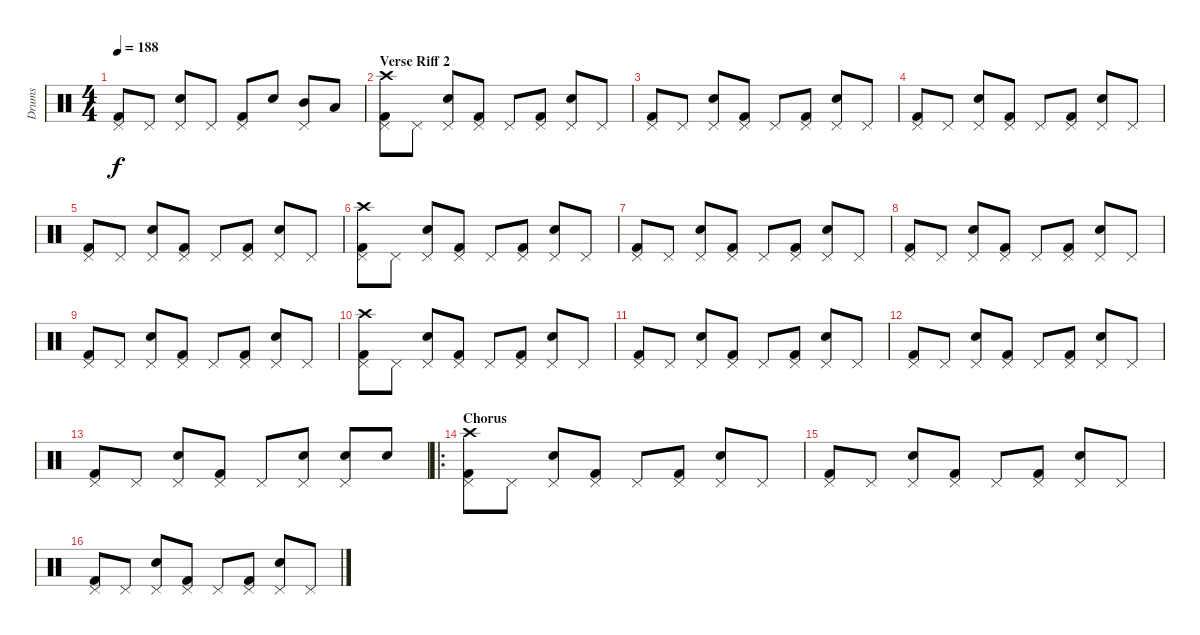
\track ("Drums" "Drums") {instrument percussion}
\staff {score}
\articulation defaults
\ts (4 4)
\tempo 188
\clef neutral
\ks c
("Kick (hit) 2" "Pedal Hi-Hat (hit)").8{dy f} "Pedal Hi-Hat (hit)".8 ("Snare (hit) 2" "Pedal Hi-Hat (hit)").8 "Pedal Hi-Hat (hit)".8 ("Kick (hit) 2" "Pedal Hi-Hat (hit)").8 "Snare (hit) 2".8 ("Mid Tom (hit)" "Pedal Hi-Hat (hit)").8 "Low Tom (hit)".8 |
\section ("" "Verse Riff 2")
("Kick (hit) 2" "Pedal Hi-Hat (hit)" "Crash high (hit)").8 "Pedal Hi-Hat (hit)".8 ("Snare (hit) 2" "Pedal Hi-Hat (hit)").8 ("Kick (hit) 2" "Pedal Hi-Hat (hit)").8 "Pedal Hi-Hat (hit)".8 ("Kick (hit) 2" "Pedal Hi-Hat (hit)").8 ("Snare (hit) 2" "Pedal Hi-Hat (hit)").8 "Pedal Hi-Hat (hit)".8 |
("Kick (hit) 2" "Pedal Hi-Hat (hit)").8 "Pedal Hi-Hat (hit)".8 ("Snare (hit) 2" "Pedal Hi-Hat (hit)").8 ("Kick (hit) 2" "Pedal Hi-Hat (hit)").8 "Pedal Hi-Hat (hit)".8 ("Kick (hit) 2" "Pedal Hi-Hat (hit)").8 ("Snare (hit) 2" "Pedal Hi-Hat (hit)").8 "Pedal Hi-Hat (hit)".8 |
("Kick (hit) 2" "Pedal Hi-Hat (hit)").8 "Pedal Hi-Hat (hit)".8 ("Snare (hit) 2" "Pedal Hi-Hat (hit)").8 ("Kick (hit) 2" "Pedal Hi-Hat (hit)").8 "Pedal Hi-Hat (hit)".8 ("Kick (hit) 2" "Pedal Hi-Hat (hit)").8 ("Snare (hit) 2" "Pedal Hi-Hat (hit)").8 "Pedal Hi-Hat (hit)".8 |
("Kick (hit) 2" "Pedal Hi-Hat (hit)").8 "Pedal Hi-Hat (hit)".8 ("Snare (hit) 2" "Pedal Hi-Hat (hit)").8 ("Kick (hit) 2" "Pedal Hi-Hat (hit)").8 "Pedal Hi-Hat (hit)".8 ("Kick (hit) 2" "Pedal Hi-Hat (hit)").8 ("Snare (hit) 2" "Pedal Hi-Hat (hit)").8 "Pedal Hi-Hat (hit)".8 |
("Kick (hit) 2" "Pedal Hi-Hat (hit)" "Crash high (hit)").8 "Pedal Hi-Hat (hit)".8 ("Snare (hit) 2" "Pedal Hi-Hat (hit)").8 ("Kick (hit) 2" "Pedal Hi-Hat (hit)").8 "Pedal Hi-Hat (hit)".8 ("Kick (hit) 2" "Pedal Hi-Hat (hit)").8 ("Snare (hit) 2" "Pedal Hi-Hat (hit)").8 "Pedal Hi-Hat (hit)".8 |
("Kick (hit) 2" "Pedal Hi-Hat (hit)").8 "Pedal Hi-Hat (hit)".8 ("Snare (hit) 2" "Pedal Hi-Hat (hit)").8 ("Kick (hit) 2" "Pedal Hi-Hat (hit)").8 "Pedal Hi-Hat (hit)".8 ("Kick (hit) 2" "Pedal Hi-Hat (hit)").8 ("Snare (hit) 2" "Pedal Hi-Hat (hit)").8 "Pedal Hi-Hat (hit)".8 |
("Kick (hit) 2" "Pedal Hi-Hat (hit)").8 "Pedal Hi-Hat (hit)".8 ("Snare (hit) 2" "Pedal Hi-Hat (hit)").8 ("Kick (hit) 2" "Pedal Hi-Hat (hit)").8 "Pedal Hi-Hat (hit)".8 ("Kick (hit) 2" "Pedal Hi-Hat (hit)").8 ("Snare (hit) 2" "Pedal Hi-Hat (hit)").8 "Pedal Hi-Hat (hit)".8 |
("Kick (hit) 2" "Pedal Hi-Hat (hit)").8 "Pedal Hi-Hat (hit)".8 ("Snare (hit) 2" "Pedal Hi-Hat (hit)").8 ("Kick (hit) 2" "Pedal Hi-Hat (hit)").8 "Pedal Hi-Hat (hit)".8 ("Kick (hit) 2" "Pedal Hi-Hat (hit)").8 ("Snare (hit) 2" "Pedal Hi-Hat (hit)").8 "Pedal Hi-Hat (hit)".8 |
("Kick (hit) 2" "Pedal Hi-Hat (hit)" "Crash high (hit)").8 "Pedal Hi-Hat (hit)".8 ("Snare (hit) 2" "Pedal Hi-Hat (hit)").8 ("Kick (hit) 2" "Pedal Hi-Hat (hit)").8 "Pedal Hi-Hat (hit)".8 ("Kick (hit) 2" "Pedal Hi-Hat (hit)").8 ("Snare (hit) 2" "Pedal Hi-Hat (hit)").8 "Pedal Hi-Hat (hit)".8 |
("Kick (hit) 2" "Pedal Hi-Hat (hit)").8 "Pedal Hi-Hat (hit)".8 ("Snare (hit) 2" "Pedal Hi-Hat (hit)").8 ("Kick (hit) 2" "Pedal Hi-Hat (hit)").8 "Pedal Hi-Hat (hit)".8 ("Kick (hit) 2" "Pedal Hi-Hat (hit)").8 ("Snare (hit) 2" "Pedal Hi-Hat (hit)").8 "Pedal Hi-Hat (hit)".8 |
("Kick (hit) 2" "Pedal Hi-Hat (hit)").8 "Pedal Hi-Hat (hit)".8 ("Snare (hit) 2" "Pedal Hi-Hat (hit)").8 ("Kick (hit) 2" "Pedal Hi-Hat (hit)").8 "Pedal Hi-Hat (hit)".8 ("Kick (hit) 2" "Pedal Hi-Hat (hit)").8 ("Snare (hit) 2" "Pedal Hi-Hat (hit)").8 "Pedal Hi-Hat (hit)".8 |
("Kick (hit) 2" "Pedal Hi-Hat (hit)").8 "Pedal Hi-Hat (hit)".8 ("Snare (hit) 2" "Pedal Hi-Hat (hit)").8 ("Kick (hit) 2" "Pedal Hi-Hat (hit)").8 "Pedal Hi-Hat (hit)".8 ("Snare (hit) 2" "Pedal Hi-Hat (hit)").8 ("Snare (hit) 2" "Pedal Hi-Hat (hit)").8 "Snare (hit) 2".8 |
\ro
\section ("" "Chorus")
("Kick (hit) 2" "Pedal Hi-Hat (hit)" "Crash high (hit)").8 "Pedal Hi-Hat (hit)".8 ("Snare (hit) 2" "Pedal Hi-Hat (hit)").8 ("Kick (hit) 2" "Pedal Hi-Hat (hit)").8 "Pedal Hi-Hat (hit)".8 ("Kick (hit) 2" "Pedal Hi-Hat (hit)").8 ("Snare (hit) 2" "Pedal Hi-Hat (hit)").8 "Pedal Hi-Hat (hit)".8 |
("Kick (hit) 2" "Pedal Hi-Hat (hit)").8 "Pedal Hi-Hat (hit)".8 ("Snare (hit) 2" "Pedal Hi-Hat (hit)").8 ("Kick (hit) 2" "Pedal Hi-Hat (hit)").8 "Pedal Hi-Hat (hit)".8 ("Kick (hit) 2" "Pedal Hi-Hat (hit)").8 ("Snare (hit) 2" "Pedal Hi-Hat (hit)").8 "Pedal Hi-Hat (hit)".8 |
("Kick (hit) 2" "Pedal Hi-Hat (hit)").8 "Pedal Hi-Hat (hit)".8 ("Snare (hit) 2" "Pedal Hi-Hat (hit)").8 ("Kick (hit) 2" "Pedal Hi-Hat (hit)").8 "Pedal Hi-Hat (hit)".8 ("Kick (hit) 2" "Pedal Hi-Hat (hit)").8 ("Snare (hit) 2" "Pedal Hi-Hat (hit)").8 "Pedal Hi-Hat (hit)".8
